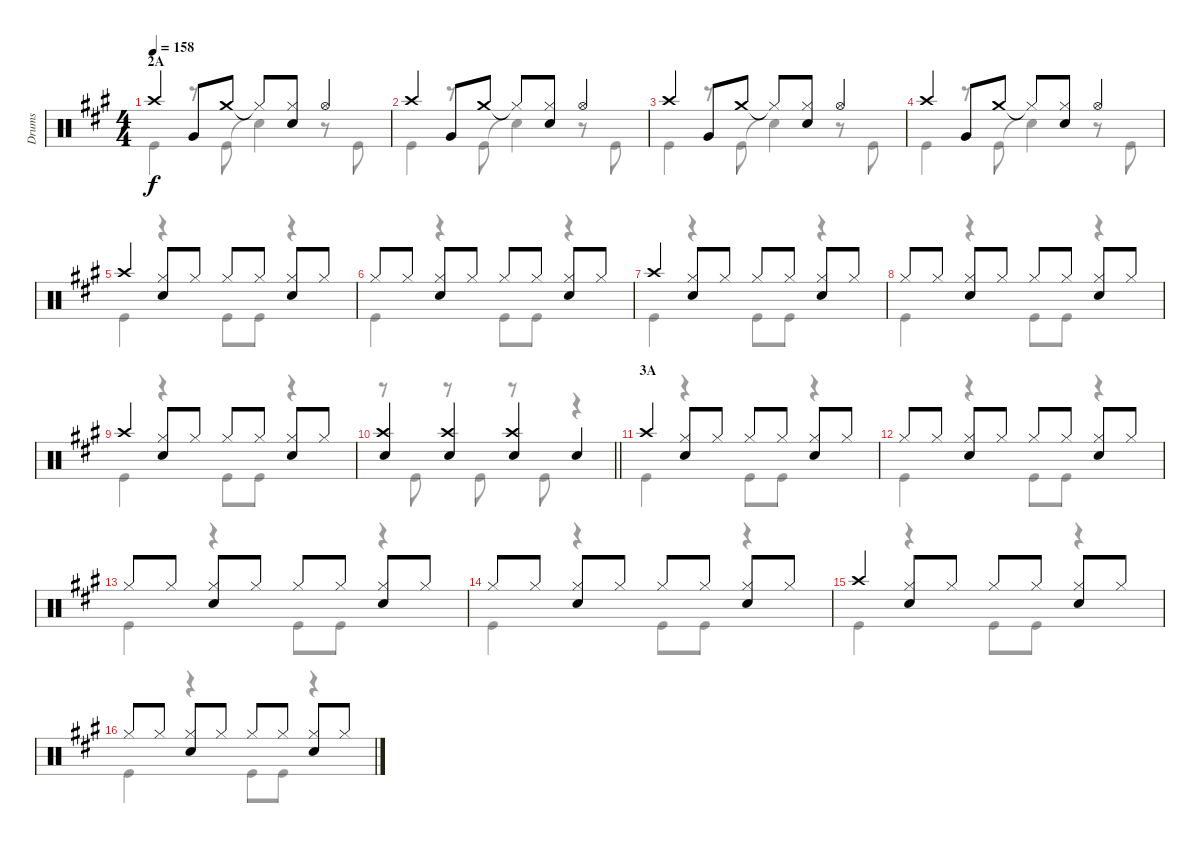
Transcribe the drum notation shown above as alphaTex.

\track ("Drums" "Drums") {instrument percussion}
\staff {score}
\articulation defaults
\voice
\ts (4 4)
\section ("" "2A")
\tempo 158
\clef neutral
\ks a "Crash high (hit)".4{dy f} "Very Low Tom (hit)".8 "Crash medium (hit)".8 "Hi-Hat (closed)"{t}.8
("Hi-Hat (closed)" "Snare (hit) 2").8 "Hi-Hat (open)".4 |
"Crash high (hit)".4 "Very Low Tom (hit)".8 "Crash medium (hit)".8 "Hi-Hat (closed)"{t}.8 ("Hi-Hat (closed)" "Snare (hit) 2").8 "Hi-Hat (open)".4 |
"Crash high (hit)".4 "Very Low Tom (hit)".8 "Crash medium (hit)".8 "Hi-Hat (closed)"{t}.8 ("Hi-Hat (closed)" "Snare (hit) 2").8 "Hi-Hat (open)".4 |
"Crash high (hit)".4 "Very Low Tom (hit)".8 "Crash medium (hit)".8 "Hi-Hat (closed)"{t}.8 ("Hi-Hat (closed)" "Snare (hit) 2").8 "Hi-Hat (open)".4 |
"Crash high (hit)".4 ("Hi-Hat (closed)" "Snare (hit) 2").8 "Hi-Hat (closed)".8 "Hi-Hat (closed)".8 "Hi-Hat (closed)".8 ("Hi-Hat (closed)" "Snare (hit) 2").8 "Hi-Hat (closed)".8 |
"Hi-Hat (closed)".8 "Hi-Hat (closed)".8 ("Hi-Hat (closed)" "Snare (hit) 2").8 "Hi-Hat (closed)".8 "Hi-Hat (closed)".8 "Hi-Hat (closed)".8 ("Hi-Hat (closed)" "Snare (hit) 2").8 "Hi-Hat (closed)".8 |
"Crash high (hit)".4 ("Hi-Hat (closed)" "Snare (hit) 2").8 "Hi-Hat (closed)".8 "Hi-Hat (closed)".8 "Hi-Hat (closed)".8 ("Hi-Hat (closed)" "Snare (hit) 2").8 "Hi-Hat (closed)".8 |
"Hi-Hat (closed)".8 "Hi-Hat (closed)".8 ("Hi-Hat (closed)" "Snare (hit) 2").8 "Hi-Hat (closed)".8 "Hi-Hat (closed)".8 "Hi-Hat (closed)".8 ("Hi-Hat (closed)" "Snare (hit) 2").8 "Hi-Hat (closed)".8 |
"Crash high (hit)".4 ("Hi-Hat (closed)" "Snare (hit) 2").8 "Hi-Hat (closed)".8 "Hi-Hat (closed)".8 "Hi-Hat (closed)".8 ("Hi-Hat (closed)" "Snare (hit) 2").8 "Hi-Hat (closed)".8 |
\barLineRight lightlight
("Crash high (hit)" "Snare (hit) 2").4 ("Crash high (hit)" "Snare (hit) 2").4 ("Crash high (hit)" "Snare (hit) 2").4 "Snare (hit) 2".4 |
\section ("" "3A")
"Crash high (hit)".4 ("Hi-Hat (closed)" "Snare (hit) 2").8 "Hi-Hat (closed)".8 "Hi-Hat (closed)".8 "Hi-Hat (closed)".8 ("Hi-Hat (closed)" "Snare (hit) 2").8 "Hi-Hat (closed)".8 |
"Hi-Hat (closed)".8 "Hi-Hat (closed)".8 ("Hi-Hat (closed)" "Snare (hit) 2").8 "Hi-Hat (closed)".8 "Hi-Hat (closed)".8 "Hi-Hat (closed)".8 ("Hi-Hat (closed)" "Snare (hit) 2").8 "Hi-Hat (closed)".8 |
"Hi-Hat (closed)".8 "Hi-Hat (closed)".8 ("Hi-Hat (closed)" "Snare (hit) 2").8 "Hi-Hat (closed)".8 "Hi-Hat (closed)".8 "Hi-Hat (closed)".8 ("Hi-Hat (closed)" "Snare (hit) 2").8 "Hi-Hat (closed)".8 |
"Hi-Hat (closed)".8 "Hi-Hat (closed)".8 ("Hi-Hat (closed)" "Snare (hit) 2").8 "Hi-Hat (closed)".8 "Hi-Hat (closed)".8 "Hi-Hat (closed)".8 ("Hi-Hat (closed)" "Snare (hit) 2").8 "Hi-Hat (closed)".8 |
"Crash high (hit)".4 ("Hi-Hat (closed)" "Snare (hit) 2").8 "Hi-Hat (closed)".8 "Hi-Hat (closed)".8 "Hi-Hat (closed)".8 ("Hi-Hat (closed)" "Snare (hit) 2").8 "Hi-Hat (closed)".8 |
"Hi-Hat (closed)".8 "Hi-Hat (closed)".8 ("Hi-Hat (closed)" "Snare (hit) 2").8 "Hi-Hat (closed)".8 "Hi-Hat (closed)".8 "Hi-Hat (closed)".8 ("Hi-Hat (closed)" "Snare (hit) 2").8 "Hi-Hat (closed)".8
\voice
\clef neutral
\ottava regular
\simile none
\ks a "Kick (hit)".4{dy f}
r.8 "Kick (hit)".8 "Snare (hit)"{t}.4 r.8 "Kick (hit)".8 |
"Kick (hit)".4 r.8 "Kick (hit)".8 "Snare (hit)"{t}.4 r.8 "Kick (hit)".8 |
"Kick (hit)".4 r.8 "Kick (hit)".8 "Snare (hit)"{t}.4 r.8 "Kick (hit)".8 |
"Kick (hit)".4 r.8 "Kick (hit)".8 "Snare (hit)"{t}.4 r.8 "Kick (hit)".8 |
"Kick (hit)".4 r.4 "Kick (hit)".8 "Kick (hit)".8 r.4 |
"Kick (hit)".4 r.4 "Kick (hit)".8 "Kick (hit)".8 r.4 |
"Kick (hit)".4 r.4 "Kick (hit)".8 "Kick (hit)".8 r.4 |
"Kick (hit)".4 r.4 "Kick (hit)".8 "Kick (hit)".8 r.4 |
"Kick (hit)".4 r.4 "Kick (hit)".8 "Kick (hit)".8 r.4 |
\barLineRight lightlight
r.8 "Kick (hit)".8 r.8 "Kick (hit)".8 r.8 "Kick (hit)".8 r.4 |
"Kick (hit)".4 r.4 "Kick (hit)".8 "Kick (hit)".8 r.4 |
"Kick (hit)".4 r.4 "Kick (hit)".8 "Kick (hit)".8 r.4 |
"Kick (hit)".4 r.4 "Kick (hit)".8 "Kick (hit)".8 r.4 |
"Kick (hit)".4 r.4 "Kick (hit)".8 "Kick (hit)".8 r.4 |
"Kick (hit)".4 r.4 "Kick (hit)".8 "Kick (hit)".8 r.4 |
"Kick (hit)".4 r.4 "Kick (hit)".8 "Kick (hit)".8 r.4
